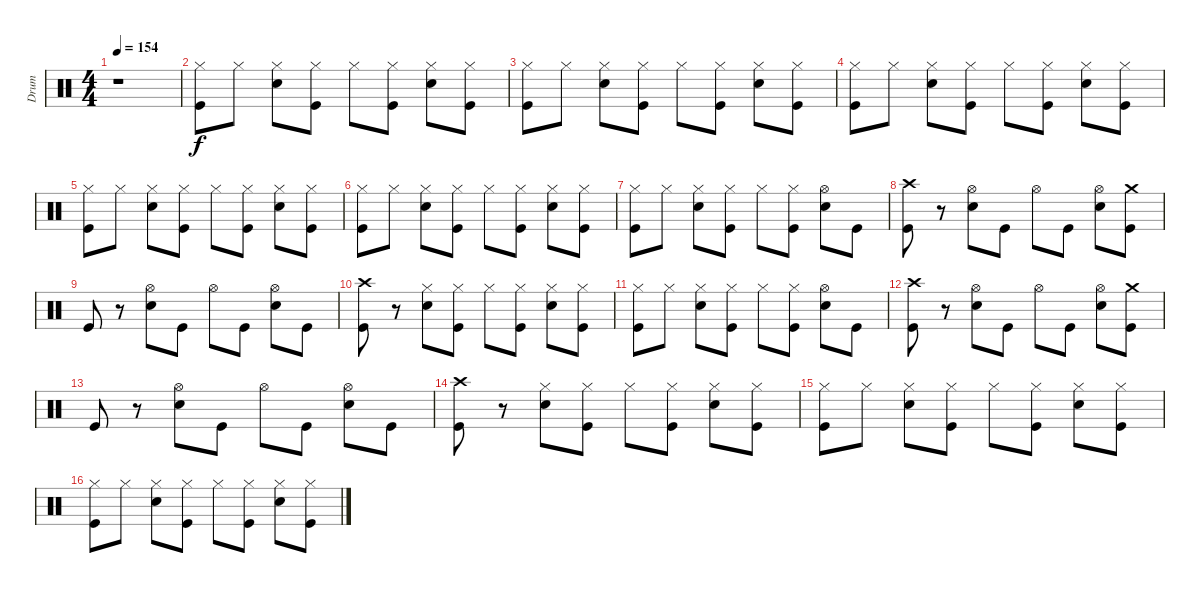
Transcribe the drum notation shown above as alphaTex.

\track ("Drum" "Drum") {instrument percussion}
\staff {score}
\articulation defaults
\ts (4 4)
\tempo 154
\clef neutral
\ks c
r.1{dy f} |
("Kick (hit)" "Hi-Hat (closed)").8 "Hi-Hat (closed)".8 ("Snare (hit) 2" "Hi-Hat (closed)").8 ("Kick (hit)" "Hi-Hat (closed)").8 "Hi-Hat (closed)".8 ("Kick (hit)" "Hi-Hat (closed)").8 ("Snare (hit) 2" "Hi-Hat (closed)").8 ("Kick (hit)" "Hi-Hat (closed)").8 |
("Kick (hit)" "Hi-Hat (closed)").8 "Hi-Hat (closed)".8 ("Snare (hit) 2" "Hi-Hat (closed)").8 ("Kick (hit)" "Hi-Hat (closed)").8 "Hi-Hat (closed)".8 ("Kick (hit)" "Hi-Hat (closed)").8 ("Snare (hit) 2" "Hi-Hat (closed)").8 ("Kick (hit)" "Hi-Hat (closed)").8 |
("Kick (hit)" "Hi-Hat (closed)").8 "Hi-Hat (closed)".8 ("Snare (hit) 2" "Hi-Hat (closed)").8 ("Kick (hit)" "Hi-Hat (closed)").8 "Hi-Hat (closed)".8 ("Kick (hit)" "Hi-Hat (closed)").8 ("Snare (hit) 2" "Hi-Hat (closed)").8 ("Kick (hit)" "Hi-Hat (closed)").8 |
("Kick (hit)" "Hi-Hat (closed)").8 "Hi-Hat (closed)".8 ("Snare (hit) 2" "Hi-Hat (closed)").8 ("Kick (hit)" "Hi-Hat (closed)").8 "Hi-Hat (closed)".8 ("Kick (hit)" "Hi-Hat (closed)").8 ("Snare (hit) 2" "Hi-Hat (closed)").8 ("Kick (hit)" "Hi-Hat (closed)").8 |
("Kick (hit)" "Hi-Hat (closed)").8 "Hi-Hat (closed)".8 ("Snare (hit) 2" "Hi-Hat (closed)").8 ("Kick (hit)" "Hi-Hat (closed)").8 "Hi-Hat (closed)".8 ("Kick (hit)" "Hi-Hat (closed)").8 ("Snare (hit) 2" "Hi-Hat (closed)").8 ("Kick (hit)" "Hi-Hat (closed)").8 |
("Kick (hit)" "Hi-Hat (closed)").8 "Hi-Hat (closed)".8 ("Snare (hit) 2" "Hi-Hat (closed)").8 ("Kick (hit)" "Hi-Hat (closed)").8 "Hi-Hat (closed)".8 ("Kick (hit)" "Hi-Hat (closed)").8 ("Snare (hit) 2" "Hi-Hat (open)").8 "Kick (hit)".8 |
("Kick (hit)" "Crash high (hit)").8 r.8 ("Snare (hit) 2" "Hi-Hat (open)").8 "Kick (hit)".8 "Hi-Hat (open)".8 "Kick (hit)".8 ("Snare (hit) 2" "Hi-Hat (open)").8 ("Kick (hit)" "Crash medium (hit)").8 |
"Kick (hit)".8 r.8 ("Snare (hit) 2" "Hi-Hat (open)").8 "Kick (hit)".8 "Hi-Hat (open)".8 "Kick (hit)".8 ("Snare (hit) 2" "Hi-Hat (open)").8 "Kick (hit)".8 |
("Kick (hit)" "Crash high (hit)").8 r.8 ("Snare (hit) 2" "Hi-Hat (closed)").8 ("Kick (hit)" "Hi-Hat (closed)").8 "Hi-Hat (closed)".8 ("Kick (hit)" "Hi-Hat (closed)").8 ("Snare (hit) 2" "Hi-Hat (closed)").8 ("Kick (hit)" "Hi-Hat (closed)").8 |
("Kick (hit)" "Hi-Hat (closed)").8 "Hi-Hat (closed)".8 ("Snare (hit) 2" "Hi-Hat (closed)").8 ("Kick (hit)" "Hi-Hat (closed)").8 "Hi-Hat (closed)".8 ("Kick (hit)" "Hi-Hat (closed)").8 ("Snare (hit) 2" "Hi-Hat (open)").8 "Kick (hit)".8 |
("Kick (hit)" "Crash high (hit)").8 r.8 ("Snare (hit) 2" "Hi-Hat (open)").8 "Kick (hit)".8 "Hi-Hat (open)".8 "Kick (hit)".8 ("Snare (hit) 2" "Hi-Hat (open)").8 ("Kick (hit)" "Crash medium (hit)").8 |
"Kick (hit)".8 r.8 ("Snare (hit) 2" "Hi-Hat (open)").8 "Kick (hit)".8 "Hi-Hat (open)".8 "Kick (hit)".8 ("Snare (hit) 2" "Hi-Hat (open)").8 "Kick (hit)".8 |
("Kick (hit)" "Crash high (hit)").8 r.8 ("Snare (hit) 2" "Hi-Hat (closed)").8 ("Kick (hit)" "Hi-Hat (closed)").8 "Hi-Hat (closed)".8 ("Kick (hit)" "Hi-Hat (closed)").8 ("Snare (hit) 2" "Hi-Hat (closed)").8 ("Kick (hit)" "Hi-Hat (closed)").8 |
("Kick (hit)" "Hi-Hat (closed)").8 "Hi-Hat (closed)".8 ("Snare (hit) 2" "Hi-Hat (closed)").8 ("Kick (hit)" "Hi-Hat (closed)").8 "Hi-Hat (closed)".8 ("Kick (hit)" "Hi-Hat (closed)").8 ("Snare (hit) 2" "Hi-Hat (closed)").8 ("Kick (hit)" "Hi-Hat (closed)").8 |
("Kick (hit)" "Hi-Hat (closed)").8 "Hi-Hat (closed)".8 ("Snare (hit) 2" "Hi-Hat (closed)").8 ("Kick (hit)" "Hi-Hat (closed)").8 "Hi-Hat (closed)".8 ("Kick (hit)" "Hi-Hat (closed)").8 ("Snare (hit) 2" "Hi-Hat (closed)").8 ("Kick (hit)" "Hi-Hat (closed)").8
